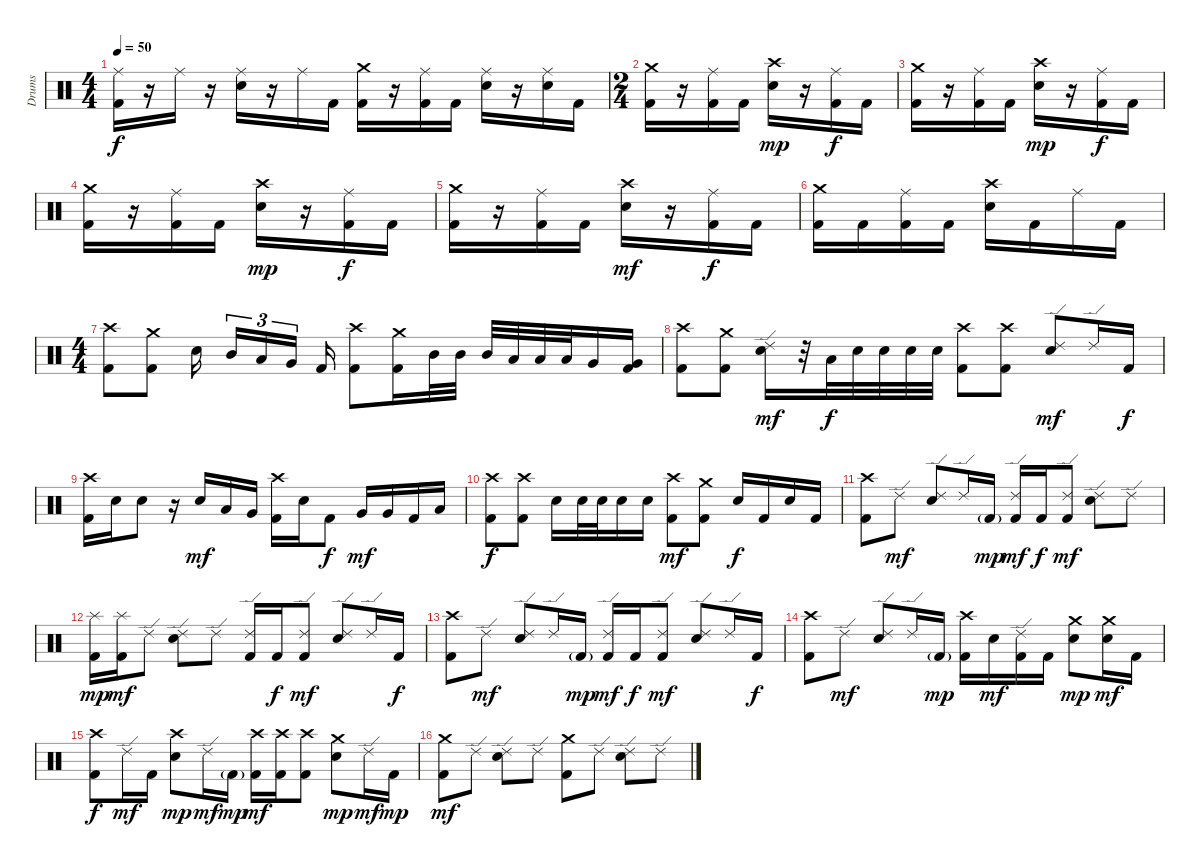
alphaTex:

\track ("Drums" "Drums") {instrument percussion}
\staff {score}
\articulation defaults
\ts (4 4)
\tempo 50
\clef neutral
\ks c
("Ride (middle)" "Kick (hit) 2").16{dy f} r.16 "Ride (middle)".16 r.16 ("Ride (middle)" "Electric Snare (hit)").16 r.16 "Ride (middle)".16 "Kick (hit) 2".16 ("Crash medium (hit)" "Kick (hit) 2").16 r.16 ("Ride (middle)" "Kick (hit) 2").16 "Kick (hit) 2".16 ("Ride (middle)" "Electric Snare (hit)").16 r.16 ("Ride (middle)" "Electric Snare (hit)").16 "Kick (hit) 2".16 |
\ts (2 4)
("Crash medium (hit)" "Kick (hit) 2").16 r.16 ("Ride (middle)" "Kick (hit) 2").16 "Kick (hit) 2".16 ("Crash high (hit)" "Electric Snare (hit)").16{dy mp} r.16 ("Ride (middle)" "Kick (hit) 2").16{dy f} "Kick (hit) 2".16 |
("Crash medium (hit)" "Kick (hit) 2").16 r.16 ("Ride (middle)" "Kick (hit) 2").16 "Kick (hit) 2".16 ("Crash high (hit)" "Electric Snare (hit)").16{dy mp} r.16 ("Ride (middle)" "Kick (hit) 2").16{dy f} "Kick (hit) 2".16 |
("Crash medium (hit)" "Kick (hit) 2").16 r.16 ("Ride (middle)" "Kick (hit) 2").16 "Kick (hit) 2".16 ("Crash high (hit)" "Electric Snare (hit)").16{dy mp} r.16 ("Ride (middle)" "Kick (hit) 2").16{dy f} "Kick (hit) 2".16 |
("Crash medium (hit)" "Kick (hit) 2").16 r.16 ("Ride (middle)" "Kick (hit) 2").16 "Kick (hit) 2".16 ("Crash high (hit)" "Electric Snare (hit)").16{dy mf} r.16 ("Ride (middle)" "Kick (hit) 2").16{dy f} "Kick (hit) 2".16 |
("Crash medium (hit)" "Kick (hit) 2").16 "Kick (hit) 2".16 ("Ride (middle)" "Kick (hit) 2").16 "Kick (hit) 2".16 ("Crash high (hit)" "Electric Snare (hit)").16 "Kick (hit) 2".16 "Ride (middle)".16 "Kick (hit) 2".16 |
\ts (4 4)
("Crash high (hit)" "Kick (hit) 2").8 ("Crash medium (hit)" "Kick (hit) 2").8 "Electric Snare (hit)".16{beam splitsecondary} "Mid Tom (hit)".16{tu (3 2)} "Low Tom (hit)".16{tu (3 2)} "Very Low Tom (hit)".16{tu (3 2) beam splitsecondary} "Kick (hit) 2".16 ("Crash high (hit)" "Kick (hit) 2").8 ("Crash medium (hit)" "Kick (hit) 2").16 "Mid Tom (hit)".32 "Mid Tom (hit)".32 "Mid Tom (hit)".32 "Low Tom (hit)".32 "Low Tom (hit)".32 "Low Tom (hit)".32 "Very Low Tom (hit)".16 ("Very Low Tom (hit)" "Kick (hit) 2").16 |
("Crash high (hit)" "Kick (hit) 2").8 ("Crash medium (hit)" "Kick (hit) 2").8 ("Ride (edge) 2" "Electric Snare (hit)").16{dy mf} r.32 "Low Tom (hit)".32{dy f} "Electric Snare (hit)".32 "Electric Snare (hit)".32 "Electric Snare (hit)".32 "Electric Snare (hit)".32 ("Crash high (hit)" "Kick (hit) 2").8 ("Crash high (hit)" "Kick (hit) 2").8 ("Ride (edge) 2" "Electric Snare (hit)").8{dy mf} "Ride (edge) 2".16 "Kick (hit) 2".16{dy f} |
("Crash high (hit)" "Kick (hit) 2").16 "Electric Snare (hit)".16 "Electric Snare (hit)".8 r.16 "Electric Snare (hit)".16{dy mf} "Low Tom (hit)".16 "Very Low Tom (hit)".16 ("Crash high (hit)" "Kick (hit) 2").16 "Electric Snare (hit)".16 "Kick (hit) 2".8{dy f} "Very Low Tom (hit)".16{dy mf} "Very Low Tom (hit)".16 "Kick (hit) 2".16 "Low Floor Tom (hit)".16 |
("Crash high (hit)" "Kick (hit) 2").8{dy f} ("Crash high (hit)" "Kick (hit) 2").8 "Electric Snare (hit)".16 "Electric Snare (hit)".32 "Electric Snare (hit)".32 "Electric Snare (hit)".16 "Electric Snare (hit)".16 ("Crash high (hit)" "Kick (hit) 2").8{dy mf} ("Crash medium (hit)" "Kick (hit) 2").8 "Electric Snare (hit)".16{dy f} "Kick (hit) 2".16 "Electric Snare (hit)".16 "Kick (hit) 2".16 |
("Crash high (hit)" "Kick (hit) 2").8 "Ride (edge) 2".8{dy mf} ("Ride (edge) 2" "Electric Snare (hit)").8 "Ride (edge) 2".16 "Kick (hit) 2"{g}.16{dy mp} ("Ride (edge) 2" "Kick (hit) 2").16{dy mf} "Kick (hit) 2".16{dy f} ("Ride (edge) 2" "Kick (hit) 2").8{dy mf} ("Ride (edge) 2" "Electric Snare (hit)").8 "Ride (edge) 2".8 |
("Splash (hit)" "Kick (hit) 2").16{dy mp} ("Splash (hit)" "Kick (hit) 2").16{dy mf} "Ride (edge) 2".8 ("Ride (edge) 2" "Electric Snare (hit)").8 "Ride (edge) 2".8 ("Ride (edge) 2" "Kick (hit) 2").16 "Kick (hit) 2".16{dy f} ("Ride (edge) 2" "Kick (hit) 2").8{dy mf} ("Ride (edge) 2" "Electric Snare (hit)").8 "Ride (edge) 2".16 "Kick (hit) 2".16{dy f} |
("Crash high (hit)" "Kick (hit) 2").8 "Ride (edge) 2".8{dy mf} ("Ride (edge) 2" "Electric Snare (hit)").8 "Ride (edge) 2".16 "Kick (hit) 2"{g}.16{dy mp} ("Ride (edge) 2" "Kick (hit) 2").16{dy mf} "Kick (hit) 2".16{dy f} ("Ride (edge) 2" "Kick (hit) 2").8{dy mf} ("Ride (edge) 2" "Electric Snare (hit)").8 "Ride (edge) 2".16 "Kick (hit) 2".16{dy f} |
("Crash high (hit)" "Kick (hit) 2").8 "Ride (edge) 2".8{dy mf} ("Ride (edge) 2" "Electric Snare (hit)").8 "Ride (edge) 2".16 "Kick (hit) 2"{g}.16{dy mp} ("Crash high (hit)" "Kick (hit) 2").16 "Electric Snare (hit)".16{dy mf} ("Ride (edge) 2" "Kick (hit) 2").16 "Kick (hit) 2".16 ("Crash medium (hit)" "Electric Snare (hit)").8{dy mp} ("Crash medium (hit)" "Electric Snare (hit)").16{dy mf} "Kick (hit) 2".16 |
("Crash high (hit)" "Kick (hit) 2").8{dy f} "Ride (edge) 2".16{dy mf} "Kick (hit) 2".16 ("Crash high (hit)" "Electric Snare (hit)").8{dy mp} "Ride (edge) 2".16{dy mf} "Kick (hit) 2"{g}.16{dy mp} ("Crash high (hit)" "Kick (hit) 2").16{dy mf} ("Crash high (hit)" "Kick (hit) 2").16 ("Crash high (hit)" "Kick (hit) 2").8 ("Crash medium (hit)" "Electric Snare (hit)").8{dy mp} "Ride (edge) 2".16{dy mf} "Kick (hit) 2".16{dy mp} |
("Crash medium (hit)" "Kick (hit) 2").8{dy mf} "Ride (edge) 2".8 ("Ride (edge) 2" "Electric Snare (hit)").8 "Ride (edge) 2".8 ("Crash medium (hit)" "Kick (hit) 2").8 "Ride (edge) 2".8 ("Ride (edge) 2" "Electric Snare (hit)").8 "Ride (edge) 2".8
